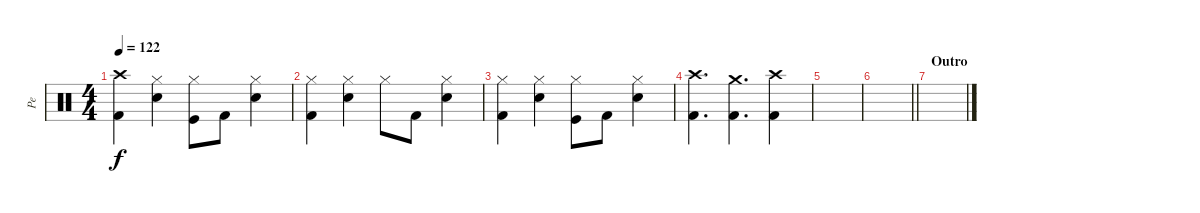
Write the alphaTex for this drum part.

\track ("Pe" "Pe") {instrument percussion}
\staff {score}
\articulation defaults
\ts (4 4)
\tempo 122
\clef neutral
\ks c
("Kick (hit) 2" "Crash high (hit)").4{dy f} ("Electric Snare (hit)" "Hi-Hat (closed)").4 ("Kick (hit)" "Hi-Hat (closed)").8 "Kick (hit) 2".8 ("Electric Snare (hit)" "Hi-Hat (closed)").4 |
("Kick (hit) 2" "Hi-Hat (closed)").4 ("Electric Snare (hit)" "Hi-Hat (closed)").4 "Hi-Hat (closed)".8 "Kick (hit) 2".8 ("Electric Snare (hit)" "Hi-Hat (closed)").4 |
("Kick (hit) 2" "Hi-Hat (closed)").4 ("Electric Snare (hit)" "Hi-Hat (closed)").4 ("Kick (hit)" "Hi-Hat (closed)").8 "Kick (hit) 2".8 ("Electric Snare (hit)" "Hi-Hat (closed)").4 |
("Kick (hit) 2" "Crash high (hit)").4{d} ("Kick (hit) 2" "Crash medium (hit)").4{d} ("Kick (hit) 2" "Crash high (hit)").4 |
|
\barLineRight lightlight
|
\section ("" "Outro")
